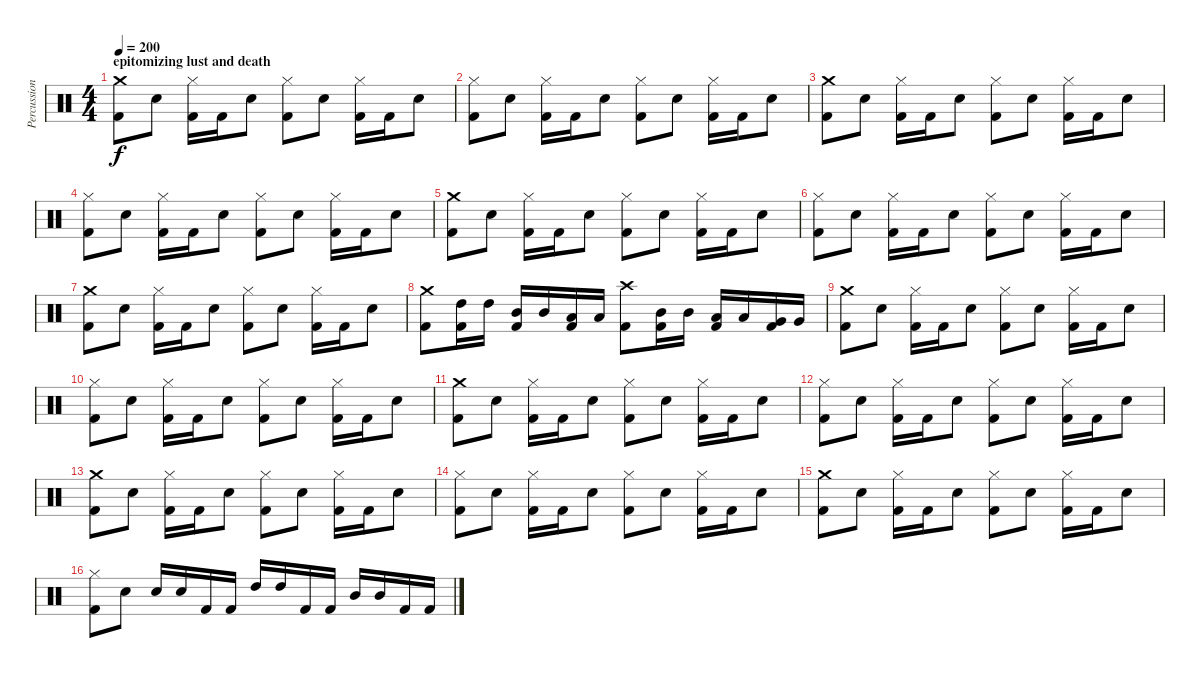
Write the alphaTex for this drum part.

\track ("Percussions" "Percussion") {instrument percussion}
\staff {score}
\articulation defaults
\ts (4 4)
\section ("" "epitomizing lust and death")
\tempo 200
\clef neutral
\ks c
("Crash medium (hit)" "Kick (hit) 2").8{dy f} "Electric Snare (hit)".8 ("Hi-Hat (closed)" "Kick (hit) 2").16 "Kick (hit) 2".16 "Electric Snare (hit)".8 ("Hi-Hat (closed)" "Kick (hit) 2").8 "Electric Snare (hit)".8 ("Hi-Hat (closed)" "Kick (hit) 2").16 "Kick (hit) 2".16 "Electric Snare (hit)".8 |
("Hi-Hat (closed)" "Kick (hit) 2").8 "Electric Snare (hit)".8 ("Hi-Hat (closed)" "Kick (hit) 2").16 "Kick (hit) 2".16 "Electric Snare (hit)".8 ("Hi-Hat (closed)" "Kick (hit) 2").8 "Electric Snare (hit)".8 ("Hi-Hat (closed)" "Kick (hit) 2").16 "Kick (hit) 2".16 "Electric Snare (hit)".8 |
("Crash medium (hit)" "Kick (hit) 2").8 "Electric Snare (hit)".8 ("Hi-Hat (closed)" "Kick (hit) 2").16 "Kick (hit) 2".16 "Electric Snare (hit)".8 ("Hi-Hat (closed)" "Kick (hit) 2").8 "Electric Snare (hit)".8 ("Hi-Hat (closed)" "Kick (hit) 2").16 "Kick (hit) 2".16 "Electric Snare (hit)".8 |
("Hi-Hat (closed)" "Kick (hit) 2").8 "Electric Snare (hit)".8 ("Hi-Hat (closed)" "Kick (hit) 2").16 "Kick (hit) 2".16 "Electric Snare (hit)".8 ("Hi-Hat (closed)" "Kick (hit) 2").8 "Electric Snare (hit)".8 ("Hi-Hat (closed)" "Kick (hit) 2").16 "Kick (hit) 2".16 "Electric Snare (hit)".8 |
("Crash medium (hit)" "Kick (hit) 2").8 "Electric Snare (hit)".8 ("Hi-Hat (closed)" "Kick (hit) 2").16 "Kick (hit) 2".16 "Electric Snare (hit)".8 ("Hi-Hat (closed)" "Kick (hit) 2").8 "Electric Snare (hit)".8 ("Hi-Hat (closed)" "Kick (hit) 2").16 "Kick (hit) 2".16 "Electric Snare (hit)".8 |
("Hi-Hat (closed)" "Kick (hit) 2").8 "Electric Snare (hit)".8 ("Hi-Hat (closed)" "Kick (hit) 2").16 "Kick (hit) 2".16 "Electric Snare (hit)".8 ("Hi-Hat (closed)" "Kick (hit) 2").8 "Electric Snare (hit)".8 ("Hi-Hat (closed)" "Kick (hit) 2").16 "Kick (hit) 2".16 "Electric Snare (hit)".8 |
("Crash medium (hit)" "Kick (hit) 2").8 "Electric Snare (hit)".8 ("Hi-Hat (closed)" "Kick (hit) 2").16 "Kick (hit) 2".16 "Electric Snare (hit)".8 ("Hi-Hat (closed)" "Kick (hit) 2").8 "Electric Snare (hit)".8 ("Hi-Hat (closed)" "Kick (hit) 2").16 "Kick (hit) 2".16 "Electric Snare (hit)".8 |
("Crash medium (hit)" "Kick (hit) 2").8 ("High Tom (hit)" "Kick (hit) 2").16 "High Tom (hit)".16 ("Mid Tom (hit)" "Kick (hit) 2").16 "Mid Tom (hit)".16 ("Low Tom (hit)" "Kick (hit) 2").16 "Low Tom (hit)".16 ("Crash high (hit)" "Kick (hit) 2").8 ("Mid Tom (hit)" "Kick (hit) 2").16 "Mid Tom (hit)".16 ("Low Tom (hit)" "Kick (hit) 2").16 "Low Tom (hit)".16 ("Very Low Tom (hit)" "Kick (hit) 2").16 "Very Low Tom (hit)".16 |
("Crash medium (hit)" "Kick (hit) 2").8 "Electric Snare (hit)".8 ("Hi-Hat (closed)" "Kick (hit) 2").16 "Kick (hit) 2".16 "Electric Snare (hit)".8 ("Hi-Hat (closed)" "Kick (hit) 2").8 "Electric Snare (hit)".8 ("Hi-Hat (closed)" "Kick (hit) 2").16 "Kick (hit) 2".16 "Electric Snare (hit)".8 |
("Hi-Hat (closed)" "Kick (hit) 2").8 "Electric Snare (hit)".8 ("Hi-Hat (closed)" "Kick (hit) 2").16 "Kick (hit) 2".16 "Electric Snare (hit)".8 ("Hi-Hat (closed)" "Kick (hit) 2").8 "Electric Snare (hit)".8 ("Hi-Hat (closed)" "Kick (hit) 2").16 "Kick (hit) 2".16 "Electric Snare (hit)".8 |
("Crash medium (hit)" "Kick (hit) 2").8 "Electric Snare (hit)".8 ("Hi-Hat (closed)" "Kick (hit) 2").16 "Kick (hit) 2".16 "Electric Snare (hit)".8 ("Hi-Hat (closed)" "Kick (hit) 2").8 "Electric Snare (hit)".8 ("Hi-Hat (closed)" "Kick (hit) 2").16 "Kick (hit) 2".16 "Electric Snare (hit)".8 |
("Hi-Hat (closed)" "Kick (hit) 2").8 "Electric Snare (hit)".8 ("Hi-Hat (closed)" "Kick (hit) 2").16 "Kick (hit) 2".16 "Electric Snare (hit)".8 ("Hi-Hat (closed)" "Kick (hit) 2").8 "Electric Snare (hit)".8 ("Hi-Hat (closed)" "Kick (hit) 2").16 "Kick (hit) 2".16 "Electric Snare (hit)".8 |
("Crash medium (hit)" "Kick (hit) 2").8 "Electric Snare (hit)".8 ("Hi-Hat (closed)" "Kick (hit) 2").16 "Kick (hit) 2".16 "Electric Snare (hit)".8 ("Hi-Hat (closed)" "Kick (hit) 2").8 "Electric Snare (hit)".8 ("Hi-Hat (closed)" "Kick (hit) 2").16 "Kick (hit) 2".16 "Electric Snare (hit)".8 |
("Hi-Hat (closed)" "Kick (hit) 2").8 "Electric Snare (hit)".8 ("Hi-Hat (closed)" "Kick (hit) 2").16 "Kick (hit) 2".16 "Electric Snare (hit)".8 ("Hi-Hat (closed)" "Kick (hit) 2").8 "Electric Snare (hit)".8 ("Hi-Hat (closed)" "Kick (hit) 2").16 "Kick (hit) 2".16 "Electric Snare (hit)".8 |
("Crash medium (hit)" "Kick (hit) 2").8 "Electric Snare (hit)".8 ("Hi-Hat (closed)" "Kick (hit) 2").16 "Kick (hit) 2".16 "Electric Snare (hit)".8 ("Hi-Hat (closed)" "Kick (hit) 2").8 "Electric Snare (hit)".8 ("Hi-Hat (closed)" "Kick (hit) 2").16 "Kick (hit) 2".16 "Electric Snare (hit)".8 |
("Hi-Hat (closed)" "Kick (hit) 2").8 "Electric Snare (hit)".8 "Electric Snare (hit)".16 "Electric Snare (hit)".16 "Kick (hit) 2".16 "Kick (hit) 2".16 "High Tom (hit)".16 "High Tom (hit)".16 "Kick (hit) 2".16 "Kick (hit) 2".16 "Mid Tom (hit)".16 "Mid Tom (hit)".16 "Kick (hit) 2".16 "Kick (hit) 2".16
